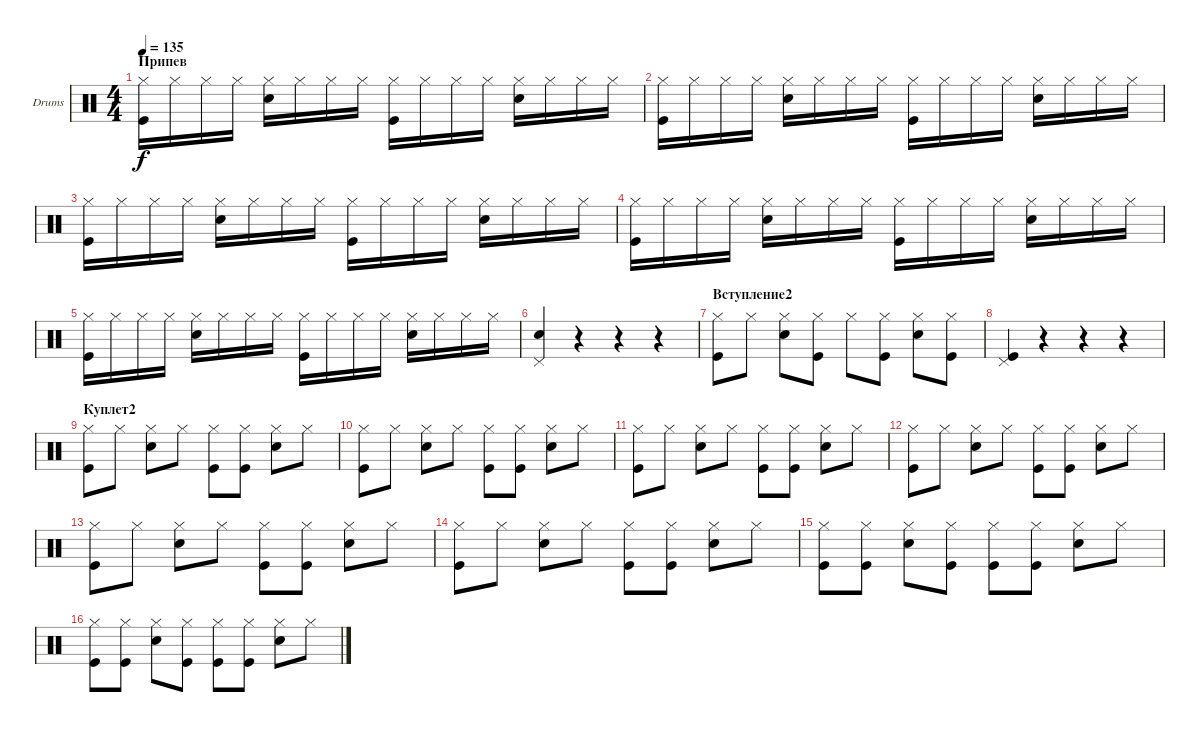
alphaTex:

\defaultSystemsLayout 4
\bracketExtendMode groupsimilarinstruments
\firstSystemTrackNameOrientation horizontal
\otherSystemsTrackNameOrientation horizontal
\track ("Drumkit" "Drums") {instrument percussion}
\staff {score}
\articulation defaults
\ts (4 4)
\section ("" "Припев")
\tempo 135
\clef neutral
\ks c
("Hi-Hat (closed)" "Kick (hit)").16{dy f} "Hi-Hat (closed)".16 "Hi-Hat (closed)".16 "Hi-Hat (closed)".16 ("Hi-Hat (closed)" "Snare (hit) 2").16 "Hi-Hat (closed)".16 "Hi-Hat (closed)".16 "Hi-Hat (closed)".16 ("Hi-Hat (closed)" "Kick (hit)").16 "Hi-Hat (closed)".16 "Hi-Hat (closed)".16 "Hi-Hat (closed)".16 ("Hi-Hat (closed)" "Snare (hit) 2").16 "Hi-Hat (closed)".16 "Hi-Hat (closed)".16 "Hi-Hat (closed)".16 |
("Hi-Hat (closed)" "Kick (hit)").16 "Hi-Hat (closed)".16 "Hi-Hat (closed)".16 "Hi-Hat (closed)".16 ("Hi-Hat (closed)" "Snare (hit) 2").16 "Hi-Hat (closed)".16 "Hi-Hat (closed)".16 "Hi-Hat (closed)".16 ("Hi-Hat (closed)" "Kick (hit)").16 "Hi-Hat (closed)".16 "Hi-Hat (closed)".16 "Hi-Hat (closed)".16 ("Hi-Hat (closed)" "Snare (hit) 2").16 "Hi-Hat (closed)".16 "Hi-Hat (closed)".16 "Hi-Hat (closed)".16 |
("Hi-Hat (closed)" "Kick (hit)").16 "Hi-Hat (closed)".16 "Hi-Hat (closed)".16 "Hi-Hat (closed)".16 ("Hi-Hat (closed)" "Snare (hit) 2").16 "Hi-Hat (closed)".16 "Hi-Hat (closed)".16 "Hi-Hat (closed)".16 ("Hi-Hat (closed)" "Kick (hit)").16 "Hi-Hat (closed)".16 "Hi-Hat (closed)".16 "Hi-Hat (closed)".16 ("Hi-Hat (closed)" "Snare (hit) 2").16 "Hi-Hat (closed)".16 "Hi-Hat (closed)".16 "Hi-Hat (closed)".16 |
("Hi-Hat (closed)" "Kick (hit)").16 "Hi-Hat (closed)".16 "Hi-Hat (closed)".16 "Hi-Hat (closed)".16 ("Hi-Hat (closed)" "Snare (hit) 2").16 "Hi-Hat (closed)".16 "Hi-Hat (closed)".16 "Hi-Hat (closed)".16 ("Hi-Hat (closed)" "Kick (hit)").16 "Hi-Hat (closed)".16 "Hi-Hat (closed)".16 "Hi-Hat (closed)".16 ("Hi-Hat (closed)" "Snare (hit) 2").16 "Hi-Hat (closed)".16 "Hi-Hat (closed)".16 "Hi-Hat (closed)".16 |
("Hi-Hat (closed)" "Kick (hit)").16 "Hi-Hat (closed)".16 "Hi-Hat (closed)".16 "Hi-Hat (closed)".16 ("Hi-Hat (closed)" "Snare (hit) 2").16 "Hi-Hat (closed)".16 "Hi-Hat (closed)".16 "Hi-Hat (closed)".16 ("Hi-Hat (closed)" "Kick (hit)").16 "Hi-Hat (closed)".16 "Hi-Hat (closed)".16 "Hi-Hat (closed)".16 ("Hi-Hat (closed)" "Snare (hit) 2").16 "Hi-Hat (closed)".16 "Hi-Hat (closed)".16 "Hi-Hat (closed)".16 |
("Snare (hit) 2" "Pedal Hi-Hat (hit)").4 r.4 r.4 r.4 |
\section ("" "Вступление2")
("Hi-Hat (closed)" "Kick (hit)").8 "Hi-Hat (closed)".8 ("Hi-Hat (closed)" "Snare (hit) 2").8 ("Hi-Hat (closed)" "Kick (hit)").8 "Hi-Hat (closed)".8 ("Hi-Hat (closed)" "Kick (hit)").8 ("Hi-Hat (closed)" "Snare (hit) 2").8 ("Hi-Hat (closed)" "Kick (hit)").8 |
("Kick (hit)" "Pedal Hi-Hat (hit)").4 r.4 r.4 r.4 |
\section ("" "Куплет2")
("Hi-Hat (closed)" "Kick (hit)").8 "Hi-Hat (closed)".8 ("Hi-Hat (closed)" "Snare (hit) 2").8 "Hi-Hat (closed)".8 ("Hi-Hat (closed)" "Kick (hit)").8 ("Hi-Hat (closed)" "Kick (hit)").8 ("Hi-Hat (closed)" "Snare (hit) 2").8 "Hi-Hat (closed)".8 |
("Hi-Hat (closed)" "Kick (hit)").8 "Hi-Hat (closed)".8 ("Hi-Hat (closed)" "Snare (hit) 2").8 "Hi-Hat (closed)".8 ("Hi-Hat (closed)" "Kick (hit)").8 ("Hi-Hat (closed)" "Kick (hit)").8 ("Hi-Hat (closed)" "Snare (hit) 2").8 "Hi-Hat (closed)".8 |
("Hi-Hat (closed)" "Kick (hit)").8 "Hi-Hat (closed)".8 ("Hi-Hat (closed)" "Snare (hit) 2").8 "Hi-Hat (closed)".8 ("Hi-Hat (closed)" "Kick (hit)").8 ("Hi-Hat (closed)" "Kick (hit)").8 ("Hi-Hat (closed)" "Snare (hit) 2").8 "Hi-Hat (closed)".8 |
("Hi-Hat (closed)" "Kick (hit)").8 "Hi-Hat (closed)".8 ("Hi-Hat (closed)" "Snare (hit) 2").8 "Hi-Hat (closed)".8 ("Hi-Hat (closed)" "Kick (hit)").8 ("Hi-Hat (closed)" "Kick (hit)").8 ("Hi-Hat (closed)" "Snare (hit) 2").8 "Hi-Hat (closed)".8 |
("Hi-Hat (closed)" "Kick (hit)").8 "Hi-Hat (closed)".8 ("Hi-Hat (closed)" "Snare (hit) 2").8 "Hi-Hat (closed)".8 ("Hi-Hat (closed)" "Kick (hit)").8 ("Hi-Hat (closed)" "Kick (hit)").8 ("Hi-Hat (closed)" "Snare (hit) 2").8 "Hi-Hat (closed)".8 |
("Hi-Hat (closed)" "Kick (hit)").8 "Hi-Hat (closed)".8 ("Hi-Hat (closed)" "Snare (hit) 2").8 "Hi-Hat (closed)".8 ("Hi-Hat (closed)" "Kick (hit)").8 ("Hi-Hat (closed)" "Kick (hit)").8 ("Hi-Hat (closed)" "Snare (hit) 2").8 "Hi-Hat (closed)".8 |
("Hi-Hat (closed)" "Kick (hit)").8 ("Hi-Hat (closed)" "Kick (hit)").8 ("Hi-Hat (closed)" "Snare (hit) 2").8 ("Hi-Hat (closed)" "Kick (hit)").8 ("Hi-Hat (closed)" "Kick (hit)").8 ("Hi-Hat (closed)" "Kick (hit)").8 ("Hi-Hat (closed)" "Snare (hit) 2").8 "Hi-Hat (closed)".8 |
("Hi-Hat (closed)" "Kick (hit)").8 ("Hi-Hat (closed)" "Kick (hit)").8 ("Hi-Hat (closed)" "Snare (hit) 2").8 ("Hi-Hat (closed)" "Kick (hit)").8 ("Hi-Hat (closed)" "Kick (hit)").8 ("Hi-Hat (closed)" "Kick (hit)").8 ("Hi-Hat (closed)" "Snare (hit) 2").8 "Hi-Hat (closed)".8
